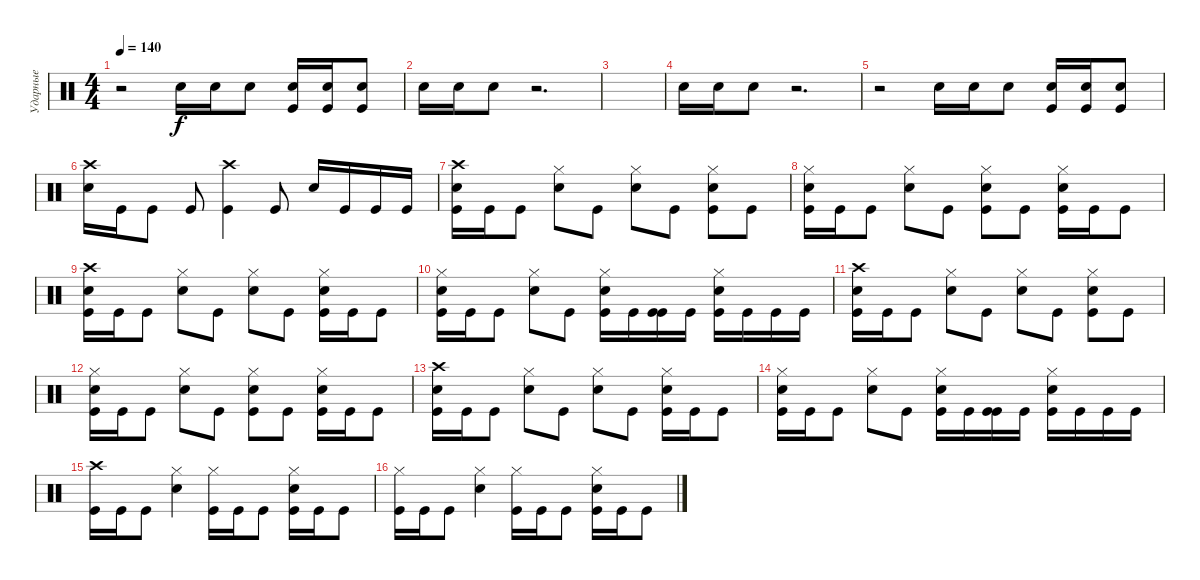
\track ("Ударные" "Ударные") {instrument percussion}
\staff {score}
\articulation defaults
\ts (4 4)
\tempo 140
\clef neutral
\ks c
r.2{dy f} "Electric Snare (hit)".16 "Electric Snare (hit)".16 "Electric Snare (hit)".8 ("Electric Snare (hit)" "Kick (hit)").16 ("Electric Snare (hit)" "Kick (hit)").16 ("Electric Snare (hit)" "Kick (hit)").8 |
"Electric Snare (hit)".16 "Electric Snare (hit)".16 "Electric Snare (hit)".8 r.2{d} |
|
"Electric Snare (hit)".16 "Electric Snare (hit)".16 "Electric Snare (hit)".8 r.2{d} |
r.2 "Electric Snare (hit)".16 "Electric Snare (hit)".16 "Electric Snare (hit)".8 ("Electric Snare (hit)" "Kick (hit)").16 ("Electric Snare (hit)" "Kick (hit)").16 ("Electric Snare (hit)" "Kick (hit)").8 |
("Crash high (hit)" "Electric Snare (hit)").16 "Kick (hit)".16 "Kick (hit)".8 "Kick (hit)".8 ("Crash high (hit)" "Kick (hit)").4 "Kick (hit)".8 "Electric Snare (hit)".16 "Kick (hit)".16 "Kick (hit)".16 "Kick (hit)".16 |
("Crash high (hit)" "Electric Snare (hit)" "Kick (hit)").16 "Kick (hit)".16 "Kick (hit)".8 ("Hi-Hat (closed)" "Electric Snare (hit)").8 "Kick (hit)".8 ("Hi-Hat (closed)" "Electric Snare (hit)").8 "Kick (hit)".8 ("Hi-Hat (closed)" "Electric Snare (hit)" "Kick (hit)").8 "Kick (hit)".8 |
("Hi-Hat (closed)" "Electric Snare (hit)" "Kick (hit)").16 "Kick (hit)".16 "Kick (hit)".8 ("Hi-Hat (closed)" "Electric Snare (hit)").8 "Kick (hit)".8 ("Hi-Hat (closed)" "Electric Snare (hit)" "Kick (hit)").8 "Kick (hit)".8 ("Hi-Hat (closed)" "Electric Snare (hit)" "Kick (hit)").16 "Kick (hit)".16 "Kick (hit)".8 |
("Crash high (hit)" "Electric Snare (hit)" "Kick (hit)").16 "Kick (hit)".16 "Kick (hit)".8 ("Hi-Hat (closed)" "Electric Snare (hit)").8 "Kick (hit)".8 ("Hi-Hat (closed)" "Electric Snare (hit)").8 "Kick (hit)".8 ("Hi-Hat (closed)" "Electric Snare (hit)" "Kick (hit)").16 "Kick (hit)".16 "Kick (hit)".8 |
("Hi-Hat (closed)" "Electric Snare (hit)" "Kick (hit)").16 "Kick (hit)".16 "Kick (hit)".8 ("Hi-Hat (closed)" "Electric Snare (hit)").8 "Kick (hit)".8 ("Hi-Hat (closed)" "Electric Snare (hit)" "Kick (hit)").16 "Kick (hit)".16 ("Kick (hit)" "Kick (hit)").16 "Kick (hit)".16 ("Hi-Hat (closed)" "Electric Snare (hit)" "Kick (hit)").16 "Kick (hit)".16 "Kick (hit)".16 "Kick (hit)".16 |
("Crash high (hit)" "Electric Snare (hit)" "Kick (hit)").16 "Kick (hit)".16 "Kick (hit)".8 ("Hi-Hat (closed)" "Electric Snare (hit)").8 "Kick (hit)".8 ("Hi-Hat (closed)" "Electric Snare (hit)").8 "Kick (hit)".8 ("Hi-Hat (closed)" "Electric Snare (hit)" "Kick (hit)").8 "Kick (hit)".8 |
("Hi-Hat (closed)" "Electric Snare (hit)" "Kick (hit)").16 "Kick (hit)".16 "Kick (hit)".8 ("Hi-Hat (closed)" "Electric Snare (hit)").8 "Kick (hit)".8 ("Hi-Hat (closed)" "Electric Snare (hit)" "Kick (hit)").8 "Kick (hit)".8 ("Hi-Hat (closed)" "Electric Snare (hit)" "Kick (hit)").16 "Kick (hit)".16 "Kick (hit)".8 |
("Crash high (hit)" "Electric Snare (hit)" "Kick (hit)").16 "Kick (hit)".16 "Kick (hit)".8 ("Hi-Hat (closed)" "Electric Snare (hit)").8 "Kick (hit)".8 ("Hi-Hat (closed)" "Electric Snare (hit)").8 "Kick (hit)".8 ("Hi-Hat (closed)" "Electric Snare (hit)" "Kick (hit)").16 "Kick (hit)".16 "Kick (hit)".8 |
("Hi-Hat (closed)" "Electric Snare (hit)" "Kick (hit)").16 "Kick (hit)".16 "Kick (hit)".8 ("Hi-Hat (closed)" "Electric Snare (hit)").8 "Kick (hit)".8 ("Hi-Hat (closed)" "Electric Snare (hit)" "Kick (hit)").16 "Kick (hit)".16 ("Kick (hit)" "Kick (hit)").16 "Kick (hit)".16 ("Hi-Hat (closed)" "Electric Snare (hit)" "Kick (hit)").16 "Kick (hit)".16 "Kick (hit)".16 "Kick (hit)".16 |
("Crash high (hit)" "Kick (hit)").16 "Kick (hit)".16 "Kick (hit)".8 ("Hi-Hat (closed)" "Electric Snare (hit)").4 ("Hi-Hat (closed)" "Kick (hit)").16 "Kick (hit)".16 "Kick (hit)".8 ("Hi-Hat (closed)" "Electric Snare (hit)" "Kick (hit)").16 "Kick (hit)".16 "Kick (hit)".8 |
("Hi-Hat (closed)" "Kick (hit)").16 "Kick (hit)".16 "Kick (hit)".8 ("Hi-Hat (closed)" "Electric Snare (hit)").4 ("Hi-Hat (closed)" "Kick (hit)").16 "Kick (hit)".16 "Kick (hit)".8 ("Hi-Hat (closed)" "Electric Snare (hit)" "Kick (hit)").16 "Kick (hit)".16 "Kick (hit)".8
